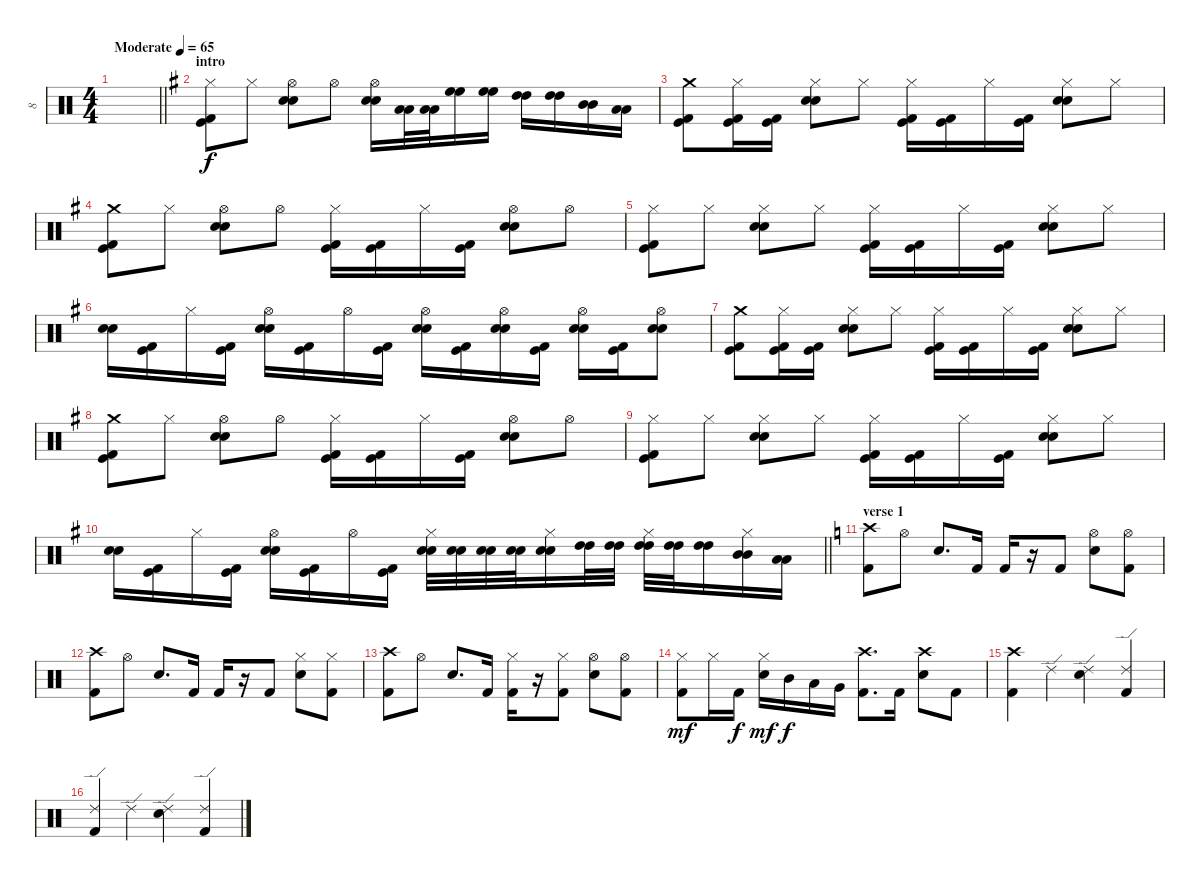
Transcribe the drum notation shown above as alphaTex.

\track ("8" "8") {instrument percussion}
\staff {score}
\articulation defaults
\ts (4 4)
\tempo (65 "Moderate")
\clef neutral
\barLineRight lightlight
\ks c
|
\section ("" "intro")
\ks eminor
("Hi-Hat (closed)" "Kick (hit)" "Kick (hit) 2").8 "Hi-Hat (closed)".8 ("Hi-Hat (open)" "Electric Snare (hit)" "Snare (hit) 2").8 "Hi-Hat (open)".8 ("Hi-Hat (open)" "Electric Snare (hit)" "Snare (hit) 2").16 ("Low Tom (hit)" "Low Tom (hit)").32 ("Low Tom (hit)" "Low Tom (hit)").32 ("High Floor Tom (hit)" "High Floor Tom (hit)").16 ("High Floor Tom (hit)" "High Floor Tom (hit)").16 ("High Tom (hit)" "High Tom (hit)").16 ("High Tom (hit)" "High Tom (hit)").16 ("Mid Tom (hit)" "Mid Tom (hit)").16 ("Low Tom (hit)" "Low Tom (hit)").16 |
("Crash medium (hit)" "Kick (hit)" "Kick (hit) 2").8 ("Hi-Hat (closed)" "Kick (hit)" "Kick (hit) 2").16 ("Kick (hit)" "Kick (hit) 2").16 ("Hi-Hat (closed)" "Snare (hit) 2" "Electric Snare (hit)").8 "Hi-Hat (closed)".8 ("Hi-Hat (closed)" "Kick (hit)" "Kick (hit) 2").16 ("Kick (hit)" "Kick (hit) 2").16 "Hi-Hat (closed)".16 ("Kick (hit)" "Kick (hit) 2").16 ("Hi-Hat (closed)" "Snare (hit) 2" "Electric Snare (hit)").8 "Hi-Hat (closed)".8 |
("Crash medium (hit)" "Kick (hit) 2" "Kick (hit)").8 "Hi-Hat (closed)".8 ("Hi-Hat (open)" "Snare (hit) 2" "Electric Snare (hit)").8 "Hi-Hat (open)".8 ("Hi-Hat (closed)" "Kick (hit)" "Kick (hit) 2").16 ("Kick (hit)" "Kick (hit) 2").16 "Hi-Hat (closed)".16 ("Kick (hit)" "Kick (hit) 2").16 ("Hi-Hat (open)" "Snare (hit) 2" "Electric Snare (hit)").8 "Hi-Hat (open)".8 |
("Hi-Hat (closed)" "Kick (hit)" "Kick (hit) 2").8 "Hi-Hat (closed)".8 ("Hi-Hat (closed)" "Snare (hit) 2" "Electric Snare (hit)").8 "Hi-Hat (closed)".8 ("Hi-Hat (closed)" "Kick (hit)" "Kick (hit) 2").16 ("Kick (hit)" "Kick (hit) 2").16 "Hi-Hat (closed)".16 ("Kick (hit)" "Kick (hit) 2").16 ("Hi-Hat (closed)" "Snare (hit) 2" "Electric Snare (hit)").8 "Hi-Hat (closed)".8 |
("Electric Snare (hit)" "Snare (hit) 2").16 ("Kick (hit)" "Kick (hit) 2").16 "Hi-Hat (closed)".16 ("Kick (hit)" "Kick (hit) 2").16 ("Hi-Hat (open)" "Snare (hit) 2" "Electric Snare (hit)").16 ("Kick (hit)" "Kick (hit) 2").16 "Hi-Hat (open)".16 ("Kick (hit)" "Kick (hit) 2").16 ("Hi-Hat (open)" "Electric Snare (hit)" "Snare (hit) 2").16 ("Kick (hit)" "Kick (hit) 2").16 ("Hi-Hat (open)" "Electric Snare (hit)" "Snare (hit) 2").16 ("Kick (hit)" "Kick (hit) 2").16 ("Hi-Hat (open)" "Electric Snare (hit)" "Snare (hit) 2").16 ("Kick (hit)" "Kick (hit) 2").16 ("Hi-Hat (open)" "Electric Snare (hit)" "Snare (hit) 2").8 |
("Crash medium (hit)" "Kick (hit)" "Kick (hit) 2").8 ("Hi-Hat (closed)" "Kick (hit)" "Kick (hit) 2").16 ("Kick (hit)" "Kick (hit) 2").16 ("Hi-Hat (closed)" "Snare (hit) 2" "Electric Snare (hit)").8 "Hi-Hat (closed)".8 ("Hi-Hat (closed)" "Kick (hit)" "Kick (hit) 2").16 ("Kick (hit)" "Kick (hit) 2").16 "Hi-Hat (closed)".16 ("Kick (hit)" "Kick (hit) 2").16 ("Hi-Hat (closed)" "Snare (hit) 2" "Electric Snare (hit)").8 "Hi-Hat (closed)".8 |
("Crash medium (hit)" "Kick (hit) 2" "Kick (hit)").8 "Hi-Hat (closed)".8 ("Hi-Hat (open)" "Snare (hit) 2" "Electric Snare (hit)").8 "Hi-Hat (open)".8 ("Hi-Hat (closed)" "Kick (hit)" "Kick (hit) 2").16 ("Kick (hit)" "Kick (hit) 2").16 "Hi-Hat (closed)".16 ("Kick (hit)" "Kick (hit) 2").16 ("Hi-Hat (open)" "Snare (hit) 2" "Electric Snare (hit)").8 "Hi-Hat (open)".8 |
("Hi-Hat (closed)" "Kick (hit)" "Kick (hit) 2").8 "Hi-Hat (closed)".8 ("Hi-Hat (closed)" "Snare (hit) 2" "Electric Snare (hit)").8 "Hi-Hat (closed)".8 ("Hi-Hat (closed)" "Kick (hit)" "Kick (hit) 2").16 ("Kick (hit)" "Kick (hit) 2").16 "Hi-Hat (closed)".16 ("Kick (hit)" "Kick (hit) 2").16 ("Hi-Hat (closed)" "Snare (hit) 2" "Electric Snare (hit)").8 "Hi-Hat (closed)".8 |
\barLineRight lightlight
("Electric Snare (hit)" "Snare (hit) 2").16 ("Kick (hit)" "Kick (hit) 2").16 "Hi-Hat (closed)".16 ("Kick (hit)" "Kick (hit) 2").16 ("Hi-Hat (open)" "Electric Snare (hit)" "Snare (hit) 2").16 ("Kick (hit)" "Kick (hit) 2").16 "Hi-Hat (open)".16 ("Kick (hit)" "Kick (hit) 2").16 ("Hi-Hat (closed)" "Snare (hit) 2" "Electric Snare (hit)").32 ("Snare (hit) 2" "Electric Snare (hit)").32 ("Snare (hit) 2" "Electric Snare (hit)").32 ("Snare (hit) 2" "Electric Snare (hit)").32 ("Hi-Hat (closed)" "Snare (hit) 2" "Electric Snare (hit)").16 ("High Tom (hit)" "High Tom (hit)").32 ("High Tom (hit)" "High Tom (hit)").32 ("Hi-Hat (closed)" "High Tom (hit)" "High Tom (hit)").32 ("High Tom (hit)" "High Tom (hit)").32 ("High Tom (hit)" "High Tom (hit)").16 ("Hi-Hat (closed)" "Mid Tom (hit)" "Mid Tom (hit)").16 ("Low Tom (hit)" "Low Tom (hit)").16 |
\section ("" "verse 1")
\ks c
("Kick (hit) 2" "Crash high (hit)").8{dy f} "Hi-Hat (open)".8 "Electric Snare (hit)".8{d} "Kick (hit) 2".16 "Kick (hit) 2".16 r.16 "Kick (hit) 2".8 ("Hi-Hat (open)" "Electric Snare (hit)").8 ("Hi-Hat (open)" "Kick (hit) 2").8 |
("Kick (hit) 2" "Crash high (hit)").8 "Hi-Hat (open)".8 "Electric Snare (hit)".8{d} "Kick (hit) 2".16 "Kick (hit) 2".16 r.16 "Kick (hit) 2".8 ("Hi-Hat (closed)" "Electric Snare (hit)").8 ("Hi-Hat (closed)" "Kick (hit) 2").8 |
("Kick (hit) 2" "Crash high (hit)").8 "Hi-Hat (open)".8 "Electric Snare (hit)".8{d} "Kick (hit) 2".16 ("Hi-Hat (closed)" "Kick (hit) 2").16 r.16 ("Hi-Hat (closed)" "Kick (hit) 2").8 ("Hi-Hat (open)" "Electric Snare (hit)").8 ("Hi-Hat (open)" "Kick (hit) 2").8 |
("Hi-Hat (closed)" "Kick (hit) 2").8{dy mf} "Hi-Hat (closed)".16 "Kick (hit) 2".16{dy f} ("Hi-Hat (closed)" "Snare (hit) 2").16{dy mf} "Mid Tom (hit)".16{dy f} "Low Tom (hit)".16 "Very Low Tom (hit)".16 ("Crash high (hit)" "Kick (hit) 2").8{d} "Kick (hit) 2".16 ("Crash high (hit)" "Snare (hit) 2").8 "Kick (hit) 2".8 |
("Crash high (hit)" "Kick (hit) 2").4 "Ride (edge) 2".4 ("Ride (edge) 2" "Electric Snare (hit)").4 ("Ride (edge) 2" "Kick (hit) 2").4 |
("Ride (edge) 2" "Kick (hit) 2").4 "Ride (edge) 2".4 ("Ride (edge) 2" "Electric Snare (hit)").4 ("Ride (edge) 2" "Kick (hit) 2").4
